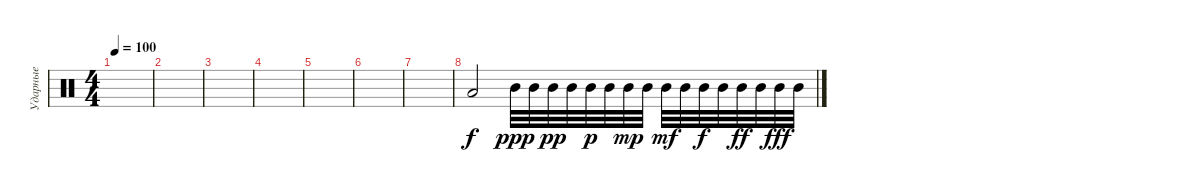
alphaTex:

\track ("Ударные" "Ударные") {instrument percussion}
\staff {score}
\articulation defaults
\ts (4 4)
\tempo 100
\clef neutral
\ks c
|
|
|
|
|
|
|
"Low Floor Tom (hit)".2 "Mid Tom (hit)".32{dy ppp} "Mid Tom (hit)".32 "Mid Tom (hit)".32{dy pp} "Mid Tom (hit)".32 "Mid Tom (hit)".32{dy p} "Mid Tom (hit)".32 "Mid Tom (hit)".32{dy mp} "Mid Tom (hit)".32 "Mid Tom (hit)".32{dy mf} "Mid Tom (hit)".32 "Mid Tom (hit)".32{dy f} "Mid Tom (hit)".32 "Mid Tom (hit)".32{dy ff} "Mid Tom (hit)".32 "Mid Tom (hit)".32{dy fff} "Mid Tom (hit)".32
